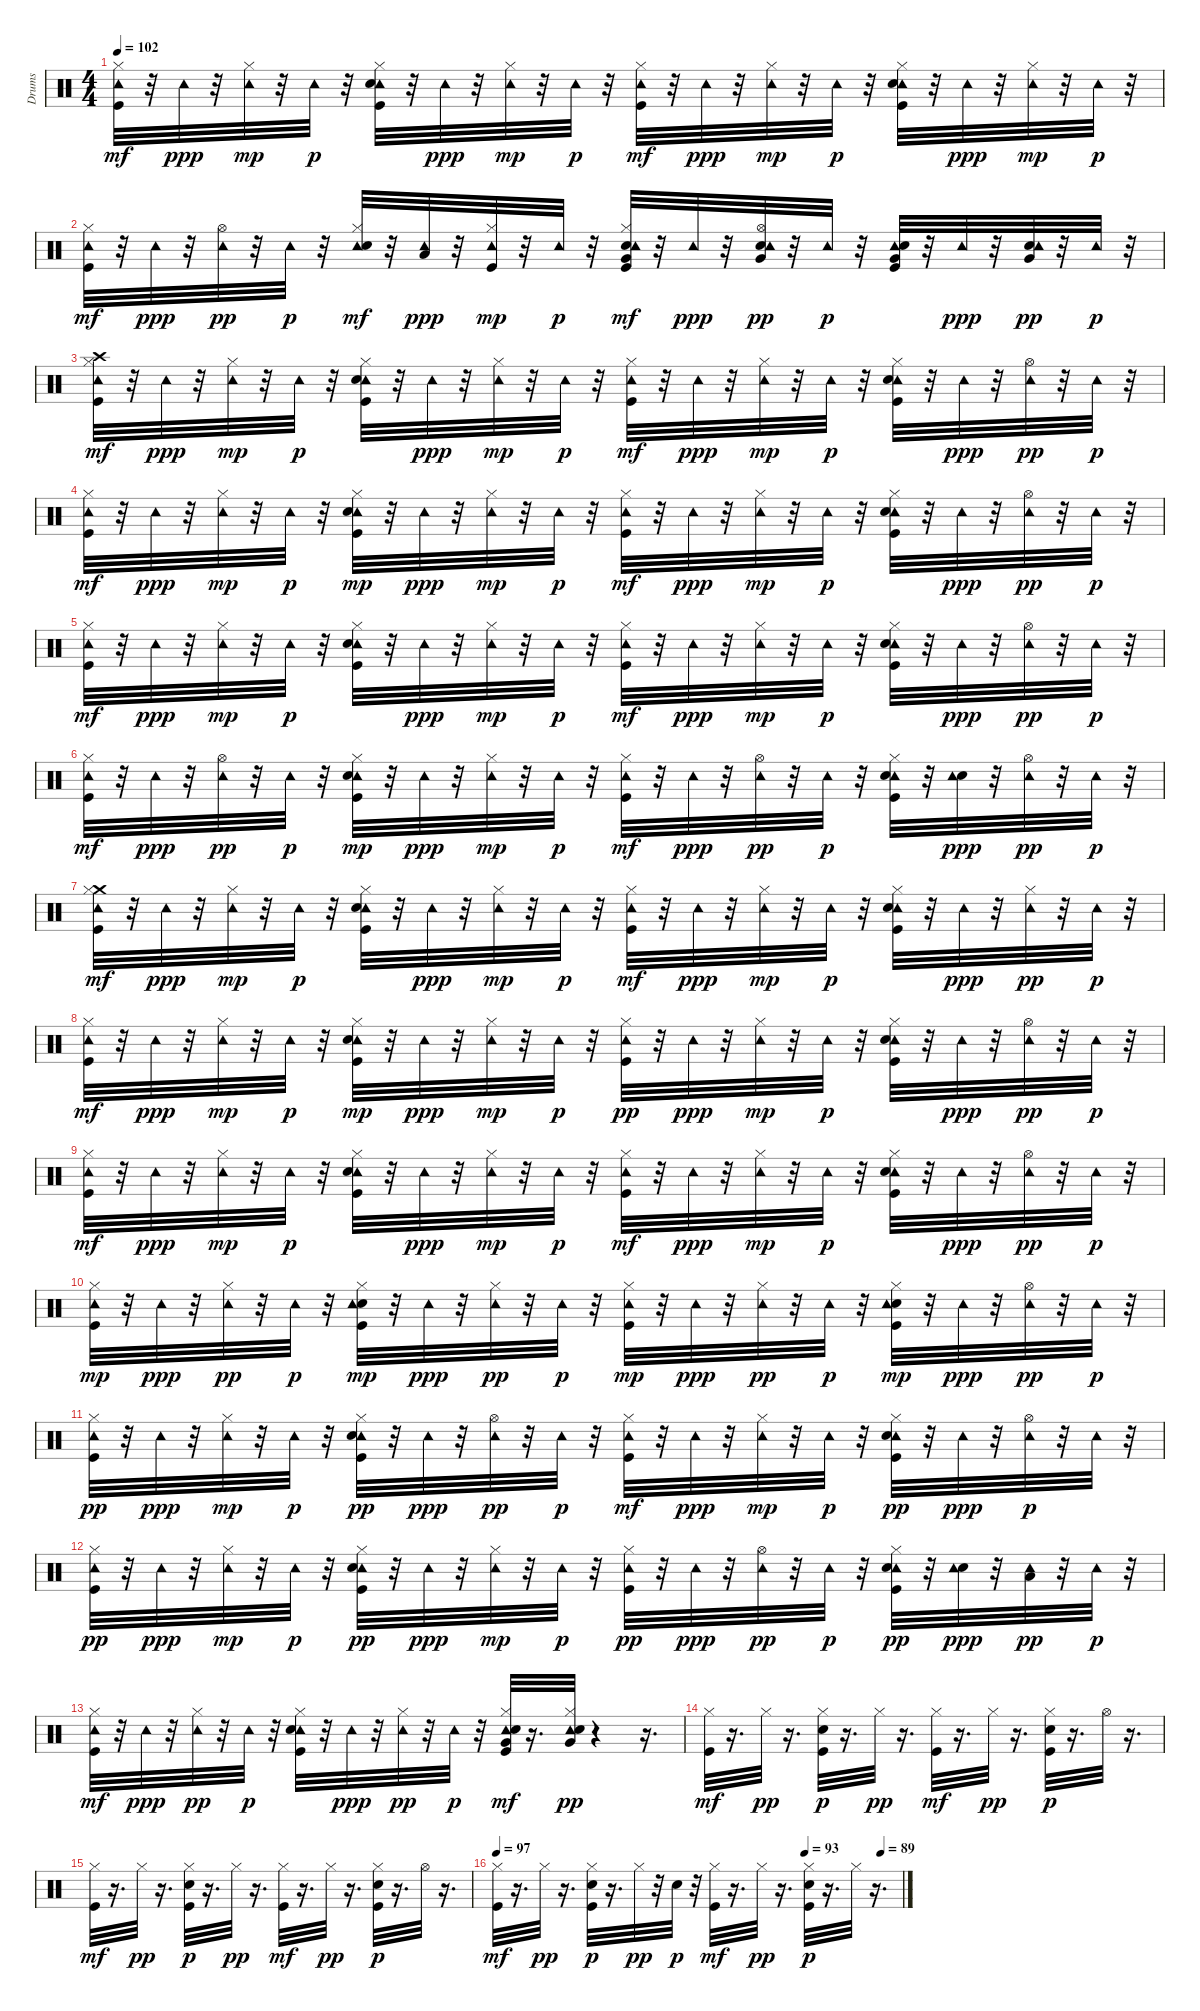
\track ("Drums" "Drums") {instrument percussion}
\staff {score}
\articulation defaults
\ts (4 4)
\tempo 102
\clef neutral
\ks c
("Tambourine (hit)" "Hi-Hat (closed)" "Kick (hit)").32{dy mf} r.32 "Tambourine (hit)".32{dy ppp} r.32 ("Tambourine (hit)" "Hi-Hat (closed)").32{dy mp} r.32 "Tambourine (hit)".32{dy p} r.32 ("Tambourine (hit)" "Hi-Hat (closed)" "Electric Snare (hit)" "Kick (hit)").32 r.32 "Tambourine (hit)".32{dy ppp} r.32 ("Tambourine (hit)" "Hi-Hat (closed)").32{dy mp} r.32 "Tambourine (hit)".32{dy p} r.32 ("Tambourine (hit)" "Hi-Hat (closed)" "Kick (hit)").32{dy mf} r.32 "Tambourine (hit)".32{dy ppp} r.32 ("Tambourine (hit)" "Hi-Hat (closed)").32{dy mp} r.32 "Tambourine (hit)".32{dy p} r.32 ("Tambourine (hit)" "Hi-Hat (closed)" "Electric Snare (hit)" "Kick (hit)").32 r.32 "Tambourine (hit)".32{dy ppp} r.32 ("Tambourine (hit)" "Hi-Hat (closed)").32{dy mp} r.32 "Tambourine (hit)".32{dy p} r.32 |
("Tambourine (hit)" "Hi-Hat (closed)" "Kick (hit)").32{dy mf} r.32 "Tambourine (hit)".32{dy ppp} r.32 ("Hi-Hat (open)" "Tambourine (hit)").32{dy pp} r.32 "Tambourine (hit)".32{dy p} r.32 ("Tambourine (hit)" "Hi-Hat (closed)" "Electric Snare (hit)").32{dy mf} r.32 ("Low Tom (hit)" "Tambourine (hit)").32{dy ppp} r.32 ("Kick (hit)" "Tambourine (hit)" "Hi-Hat (closed)").32{dy mp} r.32 "Tambourine (hit)".32{dy p} r.32 ("Electric Snare (hit)" "Very Low Tom (hit)" "Tambourine (hit)" "Hi-Hat (closed)" "Kick (hit)").32{dy mf} r.32 "Tambourine (hit)".32{dy ppp} r.32 ("Very Low Tom (hit)" "Electric Snare (hit)" "Hi-Hat (open)" "Tambourine (hit)").32{dy pp} r.32 "Tambourine (hit)".32{dy p} r.32 ("Very Low Tom (hit)" "Tambourine (hit)" "Electric Snare (hit)" "Kick (hit)").32 r.32 "Tambourine (hit)".32{dy ppp} r.32 ("Very Low Tom (hit)" "Electric Snare (hit)" "Tambourine (hit)").32{dy pp} r.32 "Tambourine (hit)".32{dy p} r.32 |
("Crash high (hit)" "Tambourine (hit)" "Hi-Hat (closed)" "Kick (hit)").32{dy mf} r.32 "Tambourine (hit)".32{dy ppp} r.32 ("Tambourine (hit)" "Hi-Hat (closed)").32{dy mp} r.32 "Tambourine (hit)".32{dy p} r.32 ("Tambourine (hit)" "Hi-Hat (closed)" "Electric Snare (hit)" "Kick (hit)").32 r.32 "Tambourine (hit)".32{dy ppp} r.32 ("Tambourine (hit)" "Hi-Hat (closed)").32{dy mp} r.32 "Tambourine (hit)".32{dy p} r.32 ("Tambourine (hit)" "Hi-Hat (closed)" "Kick (hit)").32{dy mf} r.32 "Tambourine (hit)".32{dy ppp} r.32 ("Tambourine (hit)" "Hi-Hat (closed)").32{dy mp} r.32 "Tambourine (hit)".32{dy p} r.32 ("Tambourine (hit)" "Hi-Hat (closed)" "Electric Snare (hit)" "Kick (hit)").32 r.32 "Tambourine (hit)".32{dy ppp} r.32 ("Hi-Hat (open)" "Tambourine (hit)").32{dy pp} r.32 "Tambourine (hit)".32{dy p} r.32 |
("Tambourine (hit)" "Hi-Hat (closed)" "Kick (hit)").32{dy mf} r.32 "Tambourine (hit)".32{dy ppp} r.32 ("Tambourine (hit)" "Hi-Hat (closed)").32{dy mp} r.32 "Tambourine (hit)".32{dy p} r.32 ("Tambourine (hit)" "Hi-Hat (closed)" "Electric Snare (hit)" "Kick (hit)").32{dy mp} r.32 "Tambourine (hit)".32{dy ppp} r.32 ("Tambourine (hit)" "Hi-Hat (closed)").32{dy mp} r.32 "Tambourine (hit)".32{dy p} r.32 ("Tambourine (hit)" "Hi-Hat (closed)" "Kick (hit)").32{dy mf} r.32 "Tambourine (hit)".32{dy ppp} r.32 ("Tambourine (hit)" "Hi-Hat (closed)").32{dy mp} r.32 "Tambourine (hit)".32{dy p} r.32 ("Tambourine (hit)" "Hi-Hat (closed)" "Electric Snare (hit)" "Kick (hit)").32 r.32 "Tambourine (hit)".32{dy ppp} r.32 ("Hi-Hat (open)" "Tambourine (hit)").32{dy pp} r.32 "Tambourine (hit)".32{dy p} r.32 |
("Tambourine (hit)" "Hi-Hat (closed)" "Kick (hit)").32{dy mf} r.32 "Tambourine (hit)".32{dy ppp} r.32 ("Tambourine (hit)" "Hi-Hat (closed)").32{dy mp} r.32 "Tambourine (hit)".32{dy p} r.32 ("Tambourine (hit)" "Hi-Hat (closed)" "Electric Snare (hit)" "Kick (hit)").32 r.32 "Tambourine (hit)".32{dy ppp} r.32 ("Tambourine (hit)" "Hi-Hat (closed)").32{dy mp} r.32 "Tambourine (hit)".32{dy p} r.32 ("Tambourine (hit)" "Hi-Hat (closed)" "Kick (hit)").32{dy mf} r.32 "Tambourine (hit)".32{dy ppp} r.32 ("Tambourine (hit)" "Hi-Hat (closed)").32{dy mp} r.32 "Tambourine (hit)".32{dy p} r.32 ("Tambourine (hit)" "Hi-Hat (closed)" "Electric Snare (hit)" "Kick (hit)").32 r.32 "Tambourine (hit)".32{dy ppp} r.32 ("Hi-Hat (open)" "Tambourine (hit)").32{dy pp} r.32 "Tambourine (hit)".32{dy p} r.32 |
("Tambourine (hit)" "Hi-Hat (closed)" "Kick (hit)").32{dy mf} r.32 "Tambourine (hit)".32{dy ppp} r.32 ("Hi-Hat (open)" "Tambourine (hit)").32{dy pp} r.32 "Tambourine (hit)".32{dy p} r.32 ("Tambourine (hit)" "Hi-Hat (closed)" "Electric Snare (hit)" "Kick (hit)").32{dy mp} r.32 "Tambourine (hit)".32{dy ppp} r.32 ("Tambourine (hit)" "Hi-Hat (closed)").32{dy mp} r.32 "Tambourine (hit)".32{dy p} r.32 ("Tambourine (hit)" "Hi-Hat (closed)" "Kick (hit)").32{dy mf} r.32 "Tambourine (hit)".32{dy ppp} r.32 ("Hi-Hat (open)" "Tambourine (hit)").32{dy pp} r.32 "Tambourine (hit)".32{dy p} r.32 ("Tambourine (hit)" "Hi-Hat (closed)" "Electric Snare (hit)" "Kick (hit)").32 r.32 ("Electric Snare (hit)" "Tambourine (hit)").32{dy ppp} r.32 ("Hi-Hat (open)" "Tambourine (hit)").32{dy pp} r.32 "Tambourine (hit)".32{dy p} r.32 |
("Crash medium (hit)" "Tambourine (hit)" "Hi-Hat (closed)" "Kick (hit)").32{dy mf} r.32 "Tambourine (hit)".32{dy ppp} r.32 ("Tambourine (hit)" "Hi-Hat (closed)").32{dy mp} r.32 "Tambourine (hit)".32{dy p} r.32 ("Tambourine (hit)" "Hi-Hat (closed)" "Electric Snare (hit)" "Kick (hit)").32 r.32 "Tambourine (hit)".32{dy ppp} r.32 ("Tambourine (hit)" "Hi-Hat (closed)").32{dy mp} r.32 "Tambourine (hit)".32{dy p} r.32 ("Tambourine (hit)" "Hi-Hat (closed)" "Kick (hit)").32{dy mf} r.32 "Tambourine (hit)".32{dy ppp} r.32 ("Tambourine (hit)" "Hi-Hat (closed)").32{dy mp} r.32 "Tambourine (hit)".32{dy p} r.32 ("Tambourine (hit)" "Hi-Hat (closed)" "Electric Snare (hit)" "Kick (hit)").32 r.32 "Tambourine (hit)".32{dy ppp} r.32 ("Hi-Hat (closed)" "Tambourine (hit)").32{dy pp} r.32 "Tambourine (hit)".32{dy p} r.32 |
("Tambourine (hit)" "Hi-Hat (closed)" "Kick (hit)").32{dy mf} r.32 "Tambourine (hit)".32{dy ppp} r.32 ("Tambourine (hit)" "Hi-Hat (closed)").32{dy mp} r.32 "Tambourine (hit)".32{dy p} r.32 ("Tambourine (hit)" "Hi-Hat (closed)" "Electric Snare (hit)" "Kick (hit)").32{dy mp} r.32 "Tambourine (hit)".32{dy ppp} r.32 ("Tambourine (hit)" "Hi-Hat (closed)").32{dy mp} r.32 "Tambourine (hit)".32{dy p} r.32 ("Kick (hit)" "Tambourine (hit)" "Hi-Hat (closed)").32{dy pp} r.32 "Tambourine (hit)".32{dy ppp} r.32 ("Tambourine (hit)" "Hi-Hat (closed)").32{dy mp} r.32 "Tambourine (hit)".32{dy p} r.32 ("Tambourine (hit)" "Hi-Hat (closed)" "Electric Snare (hit)" "Kick (hit)").32 r.32 "Tambourine (hit)".32{dy ppp} r.32 ("Hi-Hat (open)" "Tambourine (hit)").32{dy pp} r.32 "Tambourine (hit)".32{dy p} r.32 |
("Tambourine (hit)" "Hi-Hat (closed)" "Kick (hit)").32{dy mf} r.32 "Tambourine (hit)".32{dy ppp} r.32 ("Tambourine (hit)" "Hi-Hat (closed)").32{dy mp} r.32 "Tambourine (hit)".32{dy p} r.32 ("Tambourine (hit)" "Hi-Hat (closed)" "Electric Snare (hit)" "Kick (hit)").32 r.32 "Tambourine (hit)".32{dy ppp} r.32 ("Tambourine (hit)" "Hi-Hat (closed)").32{dy mp} r.32 "Tambourine (hit)".32{dy p} r.32 ("Tambourine (hit)" "Hi-Hat (closed)" "Kick (hit)").32{dy mf} r.32 "Tambourine (hit)".32{dy ppp} r.32 ("Tambourine (hit)" "Hi-Hat (closed)").32{dy mp} r.32 "Tambourine (hit)".32{dy p} r.32 ("Tambourine (hit)" "Hi-Hat (closed)" "Electric Snare (hit)" "Kick (hit)").32 r.32 "Tambourine (hit)".32{dy ppp} r.32 ("Hi-Hat (open)" "Tambourine (hit)").32{dy pp} r.32 "Tambourine (hit)".32{dy p} r.32 |
("Hi-Hat (closed)" "Kick (hit)" "Tambourine (hit)").32{dy mp} r.32 "Tambourine (hit)".32{dy ppp} r.32 ("Hi-Hat (closed)" "Tambourine (hit)").32{dy pp} r.32 "Tambourine (hit)".32{dy p} r.32 ("Kick (hit)" "Electric Snare (hit)" "Hi-Hat (closed)" "Tambourine (hit)").32{dy mp} r.32 "Tambourine (hit)".32{dy ppp} r.32 ("Hi-Hat (closed)" "Tambourine (hit)").32{dy pp} r.32 "Tambourine (hit)".32{dy p} r.32 ("Kick (hit)" "Hi-Hat (closed)" "Tambourine (hit)").32{dy mp} r.32 "Tambourine (hit)".32{dy ppp} r.32 ("Hi-Hat (closed)" "Tambourine (hit)").32{dy pp} r.32 "Tambourine (hit)".32{dy p} r.32 ("Kick (hit)" "Electric Snare (hit)" "Hi-Hat (closed)" "Tambourine (hit)").32{dy mp} r.32 "Tambourine (hit)".32{dy ppp} r.32 ("Hi-Hat (open)" "Tambourine (hit)").32{dy pp} r.32 "Tambourine (hit)".32{dy p} r.32 |
("Tambourine (hit)" "Kick (hit)" "Hi-Hat (closed)").32{dy pp} r.32 "Tambourine (hit)".32{dy ppp} r.32 ("Tambourine (hit)" "Hi-Hat (closed)").32{dy mp} r.32 "Tambourine (hit)".32{dy p} r.32 ("Tambourine (hit)" "Kick (hit)" "Electric Snare (hit)" "Hi-Hat (closed)").32{dy pp} r.32 "Tambourine (hit)".32{dy ppp} r.32 ("Hi-Hat (open)" "Tambourine (hit)").32{dy pp} r.32 "Tambourine (hit)".32{dy p} r.32 ("Tambourine (hit)" "Hi-Hat (closed)" "Kick (hit)").32{dy mf} r.32 "Tambourine (hit)".32{dy ppp} r.32 ("Tambourine (hit)" "Hi-Hat (closed)").32{dy mp} r.32 "Tambourine (hit)".32{dy p} r.32 ("Tambourine (hit)" "Kick (hit)" "Electric Snare (hit)" "Hi-Hat (closed)").32{dy pp} r.32 "Tambourine (hit)".32{dy ppp} r.32 ("Tambourine (hit)" "Hi-Hat (open)").32{dy p} r.32 "Tambourine (hit)".32 r.32 |
("Tambourine (hit)" "Kick (hit)" "Hi-Hat (closed)").32{dy pp} r.32 "Tambourine (hit)".32{dy ppp} r.32 ("Tambourine (hit)" "Hi-Hat (closed)").32{dy mp} r.32 "Tambourine (hit)".32{dy p} r.32 ("Tambourine (hit)" "Kick (hit)" "Electric Snare (hit)" "Hi-Hat (closed)").32{dy pp} r.32 "Tambourine (hit)".32{dy ppp} r.32 ("Tambourine (hit)" "Hi-Hat (closed)").32{dy mp} r.32 "Tambourine (hit)".32{dy p} r.32 ("Tambourine (hit)" "Kick (hit)" "Hi-Hat (closed)").32{dy pp} r.32 "Tambourine (hit)".32{dy ppp} r.32 ("Hi-Hat (open)" "Tambourine (hit)").32{dy pp} r.32 "Tambourine (hit)".32{dy p} r.32 ("Tambourine (hit)" "Kick (hit)" "Electric Snare (hit)" "Hi-Hat (closed)").32{dy pp} r.32 ("Electric Snare (hit)" "Tambourine (hit)").32{dy ppp} r.32 ("Low Floor Tom (hit)" "Tambourine (hit)").32{dy pp} r.32 "Tambourine (hit)".32{dy p} r.32 |
("Tambourine (hit)" "Hi-Hat (closed)" "Kick (hit)").32{dy mf} r.32 "Tambourine (hit)".32{dy ppp} r.32 ("Tambourine (hit)" "Hi-Hat (closed)").32{dy pp} r.32 "Tambourine (hit)".32{dy p} r.32 ("Tambourine (hit)" "Hi-Hat (closed)" "Electric Snare (hit)" "Kick (hit)").32 r.32 "Tambourine (hit)".32{dy ppp} r.32 ("Tambourine (hit)" "Hi-Hat (closed)").32{dy pp} r.32 "Tambourine (hit)".32{dy p} r.32 ("Tambourine (hit)" "Very Low Tom (hit)" "Electric Snare (hit)" "Hi-Hat (closed)" "Kick (hit)").32{dy mf} r.16{d} ("Tambourine (hit)" "Very Low Tom (hit)" "Electric Snare (hit)" "Hi-Hat (closed)").32{dy pp} r.4 r.16{d} |
("Hi-Hat (closed)" "Kick (hit)").32{dy mf} r.16{d} "Hi-Hat (closed)".32{dy pp} r.16{d} ("Hi-Hat (closed)" "Electric Snare (hit)" "Kick (hit)").32{dy p} r.16{d} "Hi-Hat (closed)".32{dy pp} r.16{d} ("Hi-Hat (closed)" "Kick (hit)").32{dy mf} r.16{d} "Hi-Hat (closed)".32{dy pp} r.16{d} ("Hi-Hat (closed)" "Electric Snare (hit)" "Kick (hit)").32{dy p} r.16{d} "Hi-Hat (open)".32 r.16{d} |
("Hi-Hat (closed)" "Kick (hit)").32{dy mf} r.16{d} "Hi-Hat (closed)".32{dy pp} r.16{d} ("Hi-Hat (closed)" "Electric Snare (hit)" "Kick (hit)").32{dy p} r.16{d} "Hi-Hat (closed)".32{dy pp} r.16{d} ("Hi-Hat (closed)" "Kick (hit)").32{dy mf} r.16{d} "Hi-Hat (closed)".32{dy pp} r.16{d} ("Hi-Hat (closed)" "Electric Snare (hit)" "Kick (hit)").32{dy p} r.16{d} "Hi-Hat (open)".32 r.16{d} |
\tempo 97
\tempo (93 0.7604166666666666)
\tempo (89 0.9479166666666666)
("Hi-Hat (closed)" "Kick (hit)").32{dy mf} r.16{d} "Hi-Hat (closed)".32{dy pp} r.16{d} ("Hi-Hat (closed)" "Electric Snare (hit)" "Kick (hit)").32{dy p} r.16{d} "Hi-Hat (closed)".32{dy pp} r.32 "Electric Snare (hit)".32{dy p} r.32 ("Hi-Hat (closed)" "Kick (hit)").32{dy mf} r.16{d} "Hi-Hat (closed)".32{dy pp} r.16{d} ("Hi-Hat (closed)" "Electric Snare (hit)" "Kick (hit)").32{dy p} r.16{d} "Hi-Hat (closed)".32 r.16{d}
